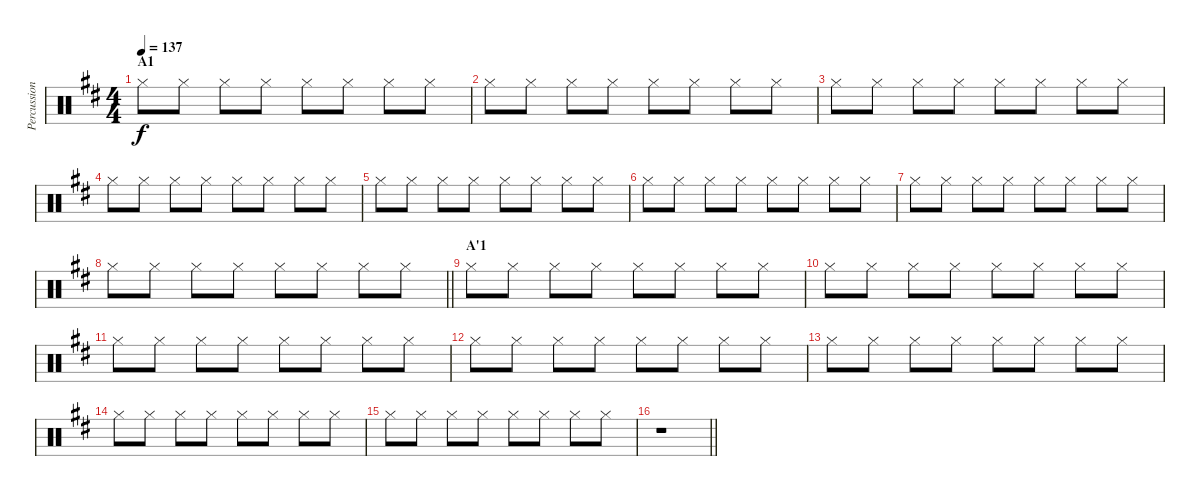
\track ("Percussion" "Percussion") {instrument percussion}
\staff {score}
\articulation defaults
\ts (4 4)
\section ("" "A1")
\tempo 137
\clef neutral
\ks d "Hi-Hat (closed)".8{dy f} "Hi-Hat (closed)".8 "Hi-Hat (closed)".8 "Hi-Hat (closed)".8 "Hi-Hat (closed)".8 "Hi-Hat (closed)".8 "Hi-Hat (closed)".8 "Hi-Hat (closed)".8
|
"Hi-Hat (closed)".8 "Hi-Hat (closed)".8 "Hi-Hat (closed)".8 "Hi-Hat (closed)".8 "Hi-Hat (closed)".8 "Hi-Hat (closed)".8 "Hi-Hat (closed)".8 "Hi-Hat (closed)".8 |
"Hi-Hat (closed)".8 "Hi-Hat (closed)".8 "Hi-Hat (closed)".8 "Hi-Hat (closed)".8 "Hi-Hat (closed)".8 "Hi-Hat (closed)".8 "Hi-Hat (closed)".8 "Hi-Hat (closed)".8 |
"Hi-Hat (closed)".8 "Hi-Hat (closed)".8 "Hi-Hat (closed)".8 "Hi-Hat (closed)".8 "Hi-Hat (closed)".8 "Hi-Hat (closed)".8 "Hi-Hat (closed)".8 "Hi-Hat (closed)".8 |
"Hi-Hat (closed)".8 "Hi-Hat (closed)".8 "Hi-Hat (closed)".8 "Hi-Hat (closed)".8 "Hi-Hat (closed)".8 "Hi-Hat (closed)".8 "Hi-Hat (closed)".8 "Hi-Hat (closed)".8 |
"Hi-Hat (closed)".8 "Hi-Hat (closed)".8 "Hi-Hat (closed)".8 "Hi-Hat (closed)".8 "Hi-Hat (closed)".8 "Hi-Hat (closed)".8 "Hi-Hat (closed)".8 "Hi-Hat (closed)".8 |
"Hi-Hat (closed)".8 "Hi-Hat (closed)".8 "Hi-Hat (closed)".8 "Hi-Hat (closed)".8 "Hi-Hat (closed)".8 "Hi-Hat (closed)".8 "Hi-Hat (closed)".8 "Hi-Hat (closed)".8 |
\barLineRight lightlight "Hi-Hat (closed)".8 "Hi-Hat (closed)".8 "Hi-Hat (closed)".8 "Hi-Hat (closed)".8 "Hi-Hat (closed)".8 "Hi-Hat (closed)".8 "Hi-Hat (closed)".8 "Hi-Hat (closed)".8
|
\section ("" "A'1")
"Hi-Hat (closed)".8 "Hi-Hat (closed)".8 "Hi-Hat (closed)".8 "Hi-Hat (closed)".8 "Hi-Hat (closed)".8 "Hi-Hat (closed)".8 "Hi-Hat (closed)".8 "Hi-Hat (closed)".8 |
"Hi-Hat (closed)".8 "Hi-Hat (closed)".8 "Hi-Hat (closed)".8 "Hi-Hat (closed)".8 "Hi-Hat (closed)".8 "Hi-Hat (closed)".8 "Hi-Hat (closed)".8 "Hi-Hat (closed)".8 |
"Hi-Hat (closed)".8 "Hi-Hat (closed)".8 "Hi-Hat (closed)".8 "Hi-Hat (closed)".8 "Hi-Hat (closed)".8 "Hi-Hat (closed)".8 "Hi-Hat (closed)".8 "Hi-Hat (closed)".8 |
"Hi-Hat (closed)".8 "Hi-Hat (closed)".8 "Hi-Hat (closed)".8 "Hi-Hat (closed)".8 "Hi-Hat (closed)".8 "Hi-Hat (closed)".8 "Hi-Hat (closed)".8 "Hi-Hat (closed)".8 |
"Hi-Hat (closed)".8 "Hi-Hat (closed)".8 "Hi-Hat (closed)".8 "Hi-Hat (closed)".8 "Hi-Hat (closed)".8 "Hi-Hat (closed)".8 "Hi-Hat (closed)".8 "Hi-Hat (closed)".8 |
"Hi-Hat (closed)".8 "Hi-Hat (closed)".8 "Hi-Hat (closed)".8 "Hi-Hat (closed)".8 "Hi-Hat (closed)".8 "Hi-Hat (closed)".8 "Hi-Hat (closed)".8 "Hi-Hat (closed)".8 |
"Hi-Hat (closed)".8 "Hi-Hat (closed)".8 "Hi-Hat (closed)".8 "Hi-Hat (closed)".8 "Hi-Hat (closed)".8 "Hi-Hat (closed)".8 "Hi-Hat (closed)".8 "Hi-Hat (closed)".8 |
\barLineRight lightlight
r.1
